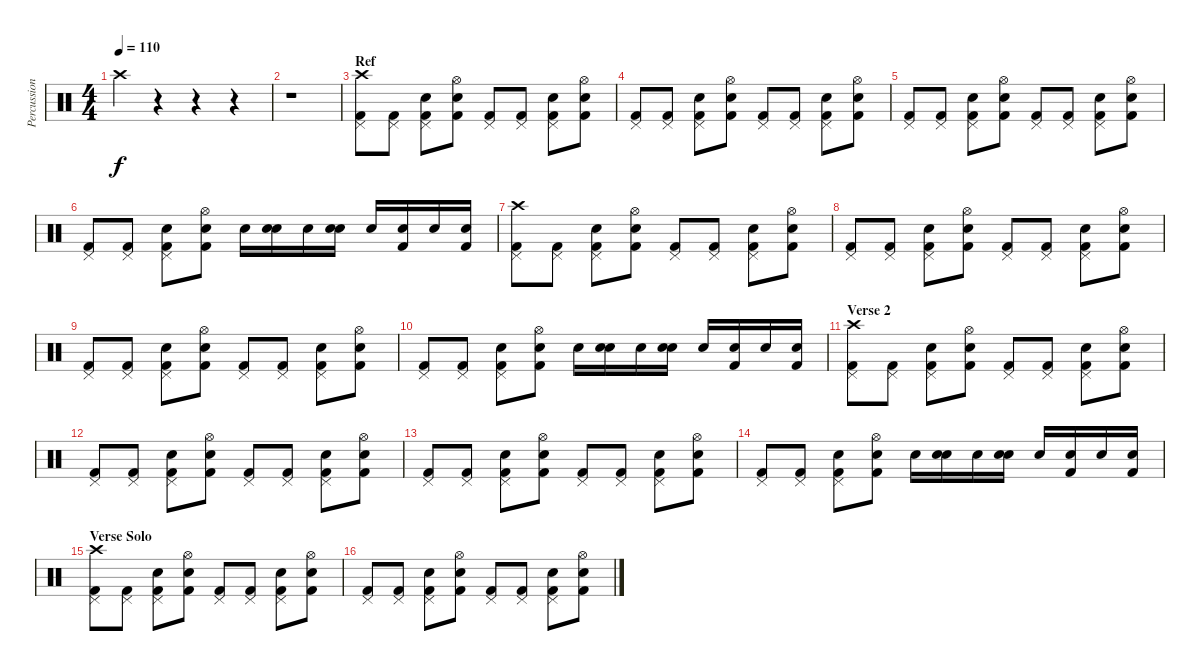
\track ("Percussion" "Percussion") {instrument percussion}
\staff {score}
\articulation defaults
\ts (4 4)
\tempo 110
\clef neutral
\ks c "Crash high (hit)".4{dy f}
r.4 r.4 r.4 |
r.1 |
\section ("" "Ref")
("Pedal Hi-Hat (hit)" "Crash high (hit)" "Kick (hit) 2").8 ("Pedal Hi-Hat (hit)" "Kick (hit) 2").8 ("Pedal Hi-Hat (hit)" "Snare (hit) 2" "Kick (hit) 2").8 ("Hi-Hat (open)" "Snare (hit) 2" "Kick (hit) 2").8 ("Pedal Hi-Hat (hit)" "Kick (hit) 2").8 ("Pedal Hi-Hat (hit)" "Kick (hit) 2").8 ("Pedal Hi-Hat (hit)" "Snare (hit) 2" "Kick (hit) 2").8 ("Hi-Hat (open)" "Snare (hit) 2" "Kick (hit) 2").8 |
("Pedal Hi-Hat (hit)" "Kick (hit) 2").8 ("Pedal Hi-Hat (hit)" "Kick (hit) 2").8 ("Pedal Hi-Hat (hit)" "Snare (hit) 2" "Kick (hit) 2").8 ("Hi-Hat (open)" "Snare (hit) 2" "Kick (hit) 2").8 ("Pedal Hi-Hat (hit)" "Kick (hit) 2").8 ("Pedal Hi-Hat (hit)" "Kick (hit) 2").8 ("Pedal Hi-Hat (hit)" "Snare (hit) 2" "Kick (hit) 2").8 ("Hi-Hat (open)" "Snare (hit) 2" "Kick (hit) 2").8 |
("Pedal Hi-Hat (hit)" "Kick (hit) 2").8 ("Pedal Hi-Hat (hit)" "Kick (hit) 2").8 ("Pedal Hi-Hat (hit)" "Snare (hit) 2" "Kick (hit) 2").8 ("Hi-Hat (open)" "Snare (hit) 2" "Kick (hit) 2").8 ("Pedal Hi-Hat (hit)" "Kick (hit) 2").8 ("Pedal Hi-Hat (hit)" "Kick (hit) 2").8 ("Pedal Hi-Hat (hit)" "Snare (hit) 2" "Kick (hit) 2").8 ("Hi-Hat (open)" "Snare (hit) 2" "Kick (hit) 2").8 |
("Pedal Hi-Hat (hit)" "Kick (hit) 2").8 ("Pedal Hi-Hat (hit)" "Kick (hit) 2").8 ("Pedal Hi-Hat (hit)" "Snare (hit) 2" "Kick (hit) 2").8 ("Hi-Hat (open)" "Snare (hit) 2" "Kick (hit) 2").8 "Snare (hit) 2".16 ("Electric Snare (hit)" "Snare (hit) 2").16 "Snare (hit) 2".16 ("Electric Snare (hit)" "Snare (hit) 2").16 "Snare (hit) 2".16 ("Kick (hit) 2" "Snare (hit) 2").16 "Snare (hit) 2".16 ("Kick (hit) 2" "Snare (hit) 2").16 |
("Pedal Hi-Hat (hit)" "Crash high (hit)" "Kick (hit) 2").8 ("Pedal Hi-Hat (hit)" "Kick (hit) 2").8 ("Pedal Hi-Hat (hit)" "Snare (hit) 2" "Kick (hit) 2").8 ("Hi-Hat (open)" "Snare (hit) 2" "Kick (hit) 2").8 ("Pedal Hi-Hat (hit)" "Kick (hit) 2").8 ("Pedal Hi-Hat (hit)" "Kick (hit) 2").8 ("Pedal Hi-Hat (hit)" "Snare (hit) 2" "Kick (hit) 2").8 ("Hi-Hat (open)" "Snare (hit) 2" "Kick (hit) 2").8 |
("Pedal Hi-Hat (hit)" "Kick (hit) 2").8 ("Pedal Hi-Hat (hit)" "Kick (hit) 2").8 ("Pedal Hi-Hat (hit)" "Snare (hit) 2" "Kick (hit) 2").8 ("Hi-Hat (open)" "Snare (hit) 2" "Kick (hit) 2").8 ("Pedal Hi-Hat (hit)" "Kick (hit) 2").8 ("Pedal Hi-Hat (hit)" "Kick (hit) 2").8 ("Pedal Hi-Hat (hit)" "Snare (hit) 2" "Kick (hit) 2").8 ("Hi-Hat (open)" "Snare (hit) 2" "Kick (hit) 2").8 |
("Pedal Hi-Hat (hit)" "Kick (hit) 2").8 ("Pedal Hi-Hat (hit)" "Kick (hit) 2").8 ("Pedal Hi-Hat (hit)" "Snare (hit) 2" "Kick (hit) 2").8 ("Hi-Hat (open)" "Snare (hit) 2" "Kick (hit) 2").8 ("Pedal Hi-Hat (hit)" "Kick (hit) 2").8 ("Pedal Hi-Hat (hit)" "Kick (hit) 2").8 ("Pedal Hi-Hat (hit)" "Snare (hit) 2" "Kick (hit) 2").8 ("Hi-Hat (open)" "Snare (hit) 2" "Kick (hit) 2").8 |
("Pedal Hi-Hat (hit)" "Kick (hit) 2").8 ("Pedal Hi-Hat (hit)" "Kick (hit) 2").8 ("Pedal Hi-Hat (hit)" "Snare (hit) 2" "Kick (hit) 2").8 ("Hi-Hat (open)" "Snare (hit) 2" "Kick (hit) 2").8 "Snare (hit) 2".16 ("Electric Snare (hit)" "Snare (hit) 2").16 "Snare (hit) 2".16 ("Electric Snare (hit)" "Snare (hit) 2").16 "Snare (hit) 2".16 ("Kick (hit) 2" "Snare (hit) 2").16 "Snare (hit) 2".16 ("Kick (hit) 2" "Snare (hit) 2").16 |
\section ("" "Verse 2")
("Pedal Hi-Hat (hit)" "Crash high (hit)" "Kick (hit) 2").8 ("Pedal Hi-Hat (hit)" "Kick (hit) 2").8 ("Pedal Hi-Hat (hit)" "Snare (hit) 2" "Kick (hit) 2").8 ("Hi-Hat (open)" "Snare (hit) 2" "Kick (hit) 2").8 ("Pedal Hi-Hat (hit)" "Kick (hit) 2").8 ("Pedal Hi-Hat (hit)" "Kick (hit) 2").8 ("Pedal Hi-Hat (hit)" "Snare (hit) 2" "Kick (hit) 2").8 ("Hi-Hat (open)" "Snare (hit) 2" "Kick (hit) 2").8 |
("Pedal Hi-Hat (hit)" "Kick (hit) 2").8 ("Pedal Hi-Hat (hit)" "Kick (hit) 2").8 ("Pedal Hi-Hat (hit)" "Snare (hit) 2" "Kick (hit) 2").8 ("Hi-Hat (open)" "Snare (hit) 2" "Kick (hit) 2").8 ("Pedal Hi-Hat (hit)" "Kick (hit) 2").8 ("Pedal Hi-Hat (hit)" "Kick (hit) 2").8 ("Pedal Hi-Hat (hit)" "Snare (hit) 2" "Kick (hit) 2").8 ("Hi-Hat (open)" "Snare (hit) 2" "Kick (hit) 2").8 |
("Pedal Hi-Hat (hit)" "Kick (hit) 2").8 ("Pedal Hi-Hat (hit)" "Kick (hit) 2").8 ("Pedal Hi-Hat (hit)" "Snare (hit) 2" "Kick (hit) 2").8 ("Hi-Hat (open)" "Snare (hit) 2" "Kick (hit) 2").8 ("Pedal Hi-Hat (hit)" "Kick (hit) 2").8 ("Pedal Hi-Hat (hit)" "Kick (hit) 2").8 ("Pedal Hi-Hat (hit)" "Snare (hit) 2" "Kick (hit) 2").8 ("Hi-Hat (open)" "Snare (hit) 2" "Kick (hit) 2").8 |
("Pedal Hi-Hat (hit)" "Kick (hit) 2").8 ("Pedal Hi-Hat (hit)" "Kick (hit) 2").8 ("Pedal Hi-Hat (hit)" "Snare (hit) 2" "Kick (hit) 2").8 ("Hi-Hat (open)" "Snare (hit) 2" "Kick (hit) 2").8 "Snare (hit) 2".16 ("Electric Snare (hit)" "Snare (hit) 2").16 "Snare (hit) 2".16 ("Electric Snare (hit)" "Snare (hit) 2").16 "Snare (hit) 2".16 ("Kick (hit) 2" "Snare (hit) 2").16 "Snare (hit) 2".16 ("Kick (hit) 2" "Snare (hit) 2").16 |
\section ("" "Verse Solo")
("Pedal Hi-Hat (hit)" "Crash high (hit)" "Kick (hit) 2").8 ("Pedal Hi-Hat (hit)" "Kick (hit) 2").8 ("Pedal Hi-Hat (hit)" "Snare (hit) 2" "Kick (hit) 2").8 ("Hi-Hat (open)" "Snare (hit) 2" "Kick (hit) 2").8 ("Pedal Hi-Hat (hit)" "Kick (hit) 2").8 ("Pedal Hi-Hat (hit)" "Kick (hit) 2").8 ("Pedal Hi-Hat (hit)" "Snare (hit) 2" "Kick (hit) 2").8 ("Hi-Hat (open)" "Snare (hit) 2" "Kick (hit) 2").8 |
("Pedal Hi-Hat (hit)" "Kick (hit) 2").8 ("Pedal Hi-Hat (hit)" "Kick (hit) 2").8 ("Pedal Hi-Hat (hit)" "Snare (hit) 2" "Kick (hit) 2").8 ("Hi-Hat (open)" "Snare (hit) 2" "Kick (hit) 2").8 ("Pedal Hi-Hat (hit)" "Kick (hit) 2").8 ("Pedal Hi-Hat (hit)" "Kick (hit) 2").8 ("Pedal Hi-Hat (hit)" "Snare (hit) 2" "Kick (hit) 2").8 ("Hi-Hat (open)" "Snare (hit) 2" "Kick (hit) 2").8
